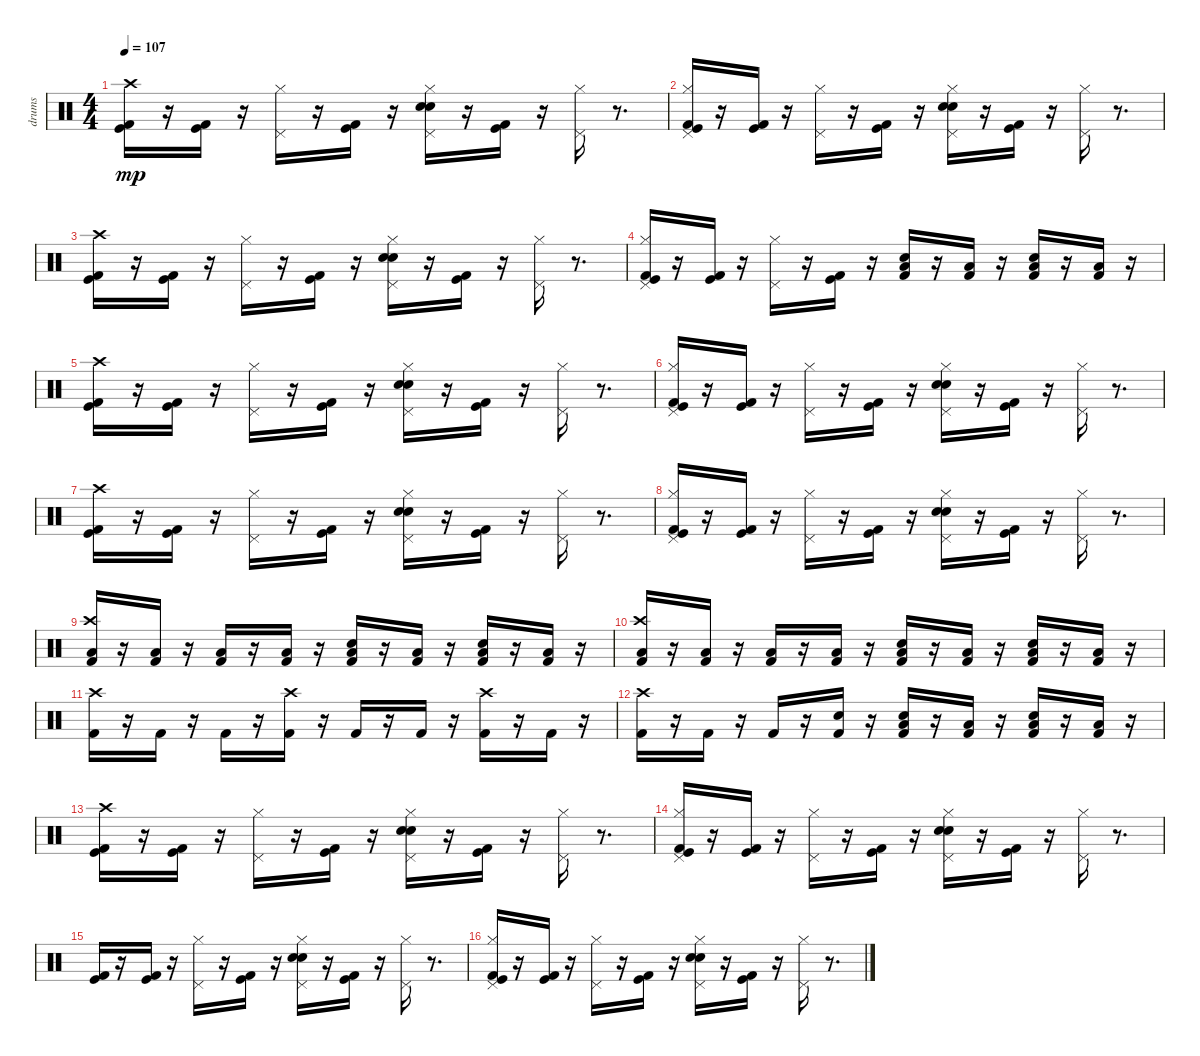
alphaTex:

\track ("drums" "drums") {instrument percussion}
\staff {score}
\articulation defaults
\ts (4 4)
\tempo 107
\clef neutral
\ks c
("Kick (hit) 2" "Kick (hit)" "Crash high (hit)").16{dy mp} r.16 ("Kick (hit) 2" "Kick (hit)").16 r.16 ("Hi-Hat (closed)" "Pedal Hi-Hat (hit)").16 r.16 ("Kick (hit) 2" "Kick (hit)").16 r.16 ("Electric Snare (hit)" "Hi-Hat (closed)" "Snare (hit) 2" "Pedal Hi-Hat (hit)").16 r.16 ("Kick (hit)" "Kick (hit) 2").16 r.16 ("Hi-Hat (closed)" "Pedal Hi-Hat (hit)").16 r.8{d} |
("Hi-Hat (closed)" "Kick (hit) 2" "Kick (hit)" "Pedal Hi-Hat (hit)").16 r.16 ("Kick (hit) 2" "Kick (hit)").16 r.16 ("Hi-Hat (closed)" "Pedal Hi-Hat (hit)").16 r.16 ("Kick (hit) 2" "Kick (hit)").16 r.16 ("Electric Snare (hit)" "Hi-Hat (closed)" "Snare (hit) 2" "Pedal Hi-Hat (hit)").16 r.16 ("Kick (hit)" "Kick (hit) 2").16 r.16 ("Hi-Hat (closed)" "Pedal Hi-Hat (hit)").16 r.8{d} |
("Kick (hit) 2" "Kick (hit)" "Crash high (hit)").16 r.16 ("Kick (hit) 2" "Kick (hit)").16 r.16 ("Hi-Hat (closed)" "Pedal Hi-Hat (hit)").16 r.16 ("Kick (hit) 2" "Kick (hit)").16 r.16 ("Electric Snare (hit)" "Hi-Hat (closed)" "Snare (hit) 2" "Pedal Hi-Hat (hit)").16 r.16 ("Kick (hit)" "Kick (hit) 2").16 r.16 ("Hi-Hat (closed)" "Pedal Hi-Hat (hit)").16 r.8{d} |
("Hi-Hat (closed)" "Kick (hit) 2" "Kick (hit)" "Pedal Hi-Hat (hit)").16 r.16 ("Kick (hit) 2" "Kick (hit)").16 r.16 ("Hi-Hat (closed)" "Pedal Hi-Hat (hit)").16 r.16 ("Kick (hit) 2" "Kick (hit)").16 r.16 ("Low Tom (hit)" "Kick (hit) 2" "Snare (hit) 2").16 r.16 ("Low Tom (hit)" "Kick (hit) 2").16 r.16 ("Low Tom (hit)" "Kick (hit) 2" "Snare (hit) 2").16 r.16 ("Low Tom (hit)" "Kick (hit) 2").16 r.16 |
("Kick (hit) 2" "Kick (hit)" "Crash high (hit)").16 r.16 ("Kick (hit) 2" "Kick (hit)").16 r.16 ("Hi-Hat (closed)" "Pedal Hi-Hat (hit)").16 r.16 ("Kick (hit) 2" "Kick (hit)").16 r.16 ("Electric Snare (hit)" "Hi-Hat (closed)" "Snare (hit) 2" "Pedal Hi-Hat (hit)").16 r.16 ("Kick (hit)" "Kick (hit) 2").16 r.16 ("Hi-Hat (closed)" "Pedal Hi-Hat (hit)").16 r.8{d} |
("Hi-Hat (closed)" "Kick (hit) 2" "Kick (hit)" "Pedal Hi-Hat (hit)").16 r.16 ("Kick (hit) 2" "Kick (hit)").16 r.16 ("Hi-Hat (closed)" "Pedal Hi-Hat (hit)").16 r.16 ("Kick (hit) 2" "Kick (hit)").16 r.16 ("Electric Snare (hit)" "Hi-Hat (closed)" "Snare (hit) 2" "Pedal Hi-Hat (hit)").16 r.16 ("Kick (hit)" "Kick (hit) 2").16 r.16 ("Hi-Hat (closed)" "Pedal Hi-Hat (hit)").16 r.8{d} |
("Kick (hit) 2" "Kick (hit)" "Crash high (hit)").16 r.16 ("Kick (hit) 2" "Kick (hit)").16 r.16 ("Hi-Hat (closed)" "Pedal Hi-Hat (hit)").16 r.16 ("Kick (hit) 2" "Kick (hit)").16 r.16 ("Electric Snare (hit)" "Hi-Hat (closed)" "Snare (hit) 2" "Pedal Hi-Hat (hit)").16 r.16 ("Kick (hit)" "Kick (hit) 2").16 r.16 ("Hi-Hat (closed)" "Pedal Hi-Hat (hit)").16 r.8{d} |
("Hi-Hat (closed)" "Kick (hit) 2" "Kick (hit)" "Pedal Hi-Hat (hit)").16 r.16 ("Kick (hit) 2" "Kick (hit)").16 r.16 ("Hi-Hat (closed)" "Pedal Hi-Hat (hit)").16 r.16 ("Kick (hit) 2" "Kick (hit)").16 r.16 ("Electric Snare (hit)" "Hi-Hat (closed)" "Snare (hit) 2" "Pedal Hi-Hat (hit)").16 r.16 ("Kick (hit)" "Kick (hit) 2").16 r.16 ("Hi-Hat (closed)" "Pedal Hi-Hat (hit)").16 r.8{d} |
("Kick (hit) 2" "Crash high (hit)" "Low Tom (hit)").16 r.16 ("Kick (hit) 2" "Low Tom (hit)").16 r.16 ("Kick (hit) 2" "Low Tom (hit)").16 r.16 ("Kick (hit) 2" "Low Tom (hit)").16 r.16 ("Low Tom (hit)" "Kick (hit) 2" "Snare (hit) 2").16 r.16 ("Low Tom (hit)" "Kick (hit) 2").16 r.16 ("Low Tom (hit)" "Kick (hit) 2" "Snare (hit) 2").16 r.16 ("Low Tom (hit)" "Kick (hit) 2").16 r.16 |
("Kick (hit) 2" "Crash high (hit)" "Low Tom (hit)").16 r.16 ("Kick (hit) 2" "Low Tom (hit)").16 r.16 ("Kick (hit) 2" "Low Tom (hit)").16 r.16 ("Kick (hit) 2" "Low Tom (hit)").16 r.16 ("Low Tom (hit)" "Kick (hit) 2" "Snare (hit) 2").16 r.16 ("Low Tom (hit)" "Kick (hit) 2").16 r.16 ("Low Tom (hit)" "Kick (hit) 2" "Snare (hit) 2").16 r.16 ("Low Tom (hit)" "Kick (hit) 2").16 r.16 |
("Kick (hit) 2" "Crash high (hit)").16 r.16 "Kick (hit) 2".16 r.16 "Kick (hit) 2".16 r.16 ("Kick (hit) 2" "Crash high (hit)").16 r.16 "Kick (hit) 2".16 r.16 "Kick (hit) 2".16 r.16 ("Crash high (hit)" "Kick (hit) 2").16 r.16 "Kick (hit) 2".16 r.16 |
("Kick (hit) 2" "Crash high (hit)").16 r.16 "Kick (hit) 2".16 r.16 "Kick (hit) 2".16 r.16 ("Kick (hit) 2" "Snare (hit) 2").16 r.16 ("Low Tom (hit)" "Kick (hit) 2" "Snare (hit) 2").16 r.16 ("Low Tom (hit)" "Kick (hit) 2").16 r.16 ("Low Tom (hit)" "Kick (hit) 2" "Snare (hit) 2").16 r.16 ("Low Tom (hit)" "Kick (hit) 2").16 r.16 |
("Kick (hit) 2" "Kick (hit)" "Crash high (hit)").16 r.16 ("Kick (hit) 2" "Kick (hit)").16 r.16 ("Hi-Hat (closed)" "Pedal Hi-Hat (hit)").16 r.16 ("Kick (hit) 2" "Kick (hit)").16 r.16 ("Electric Snare (hit)" "Hi-Hat (closed)" "Snare (hit) 2" "Pedal Hi-Hat (hit)").16 r.16 ("Kick (hit)" "Kick (hit) 2").16 r.16 ("Hi-Hat (closed)" "Pedal Hi-Hat (hit)").16 r.8{d} |
("Hi-Hat (closed)" "Kick (hit) 2" "Kick (hit)" "Pedal Hi-Hat (hit)").16 r.16 ("Kick (hit) 2" "Kick (hit)").16 r.16 ("Hi-Hat (closed)" "Pedal Hi-Hat (hit)").16 r.16 ("Kick (hit) 2" "Kick (hit)").16 r.16 ("Electric Snare (hit)" "Hi-Hat (closed)" "Snare (hit) 2" "Pedal Hi-Hat (hit)").16 r.16 ("Kick (hit)" "Kick (hit) 2").16 r.16 ("Hi-Hat (closed)" "Pedal Hi-Hat (hit)").16 r.8{d} |
("Kick (hit) 2" "Kick (hit)").16 r.16 ("Kick (hit) 2" "Kick (hit)").16 r.16 ("Hi-Hat (closed)" "Pedal Hi-Hat (hit)").16 r.16 ("Kick (hit) 2" "Kick (hit)").16 r.16 ("Electric Snare (hit)" "Hi-Hat (closed)" "Snare (hit) 2" "Pedal Hi-Hat (hit)").16 r.16 ("Kick (hit)" "Kick (hit) 2").16 r.16 ("Hi-Hat (closed)" "Pedal Hi-Hat (hit)").16 r.8{d} |
("Hi-Hat (closed)" "Kick (hit) 2" "Kick (hit)" "Pedal Hi-Hat (hit)").16 r.16 ("Kick (hit) 2" "Kick (hit)").16 r.16 ("Hi-Hat (closed)" "Pedal Hi-Hat (hit)").16 r.16 ("Kick (hit) 2" "Kick (hit)").16 r.16 ("Electric Snare (hit)" "Hi-Hat (closed)" "Snare (hit) 2" "Pedal Hi-Hat (hit)").16 r.16 ("Kick (hit)" "Kick (hit) 2").16 r.16 ("Hi-Hat (closed)" "Pedal Hi-Hat (hit)").16 r.8{d}
